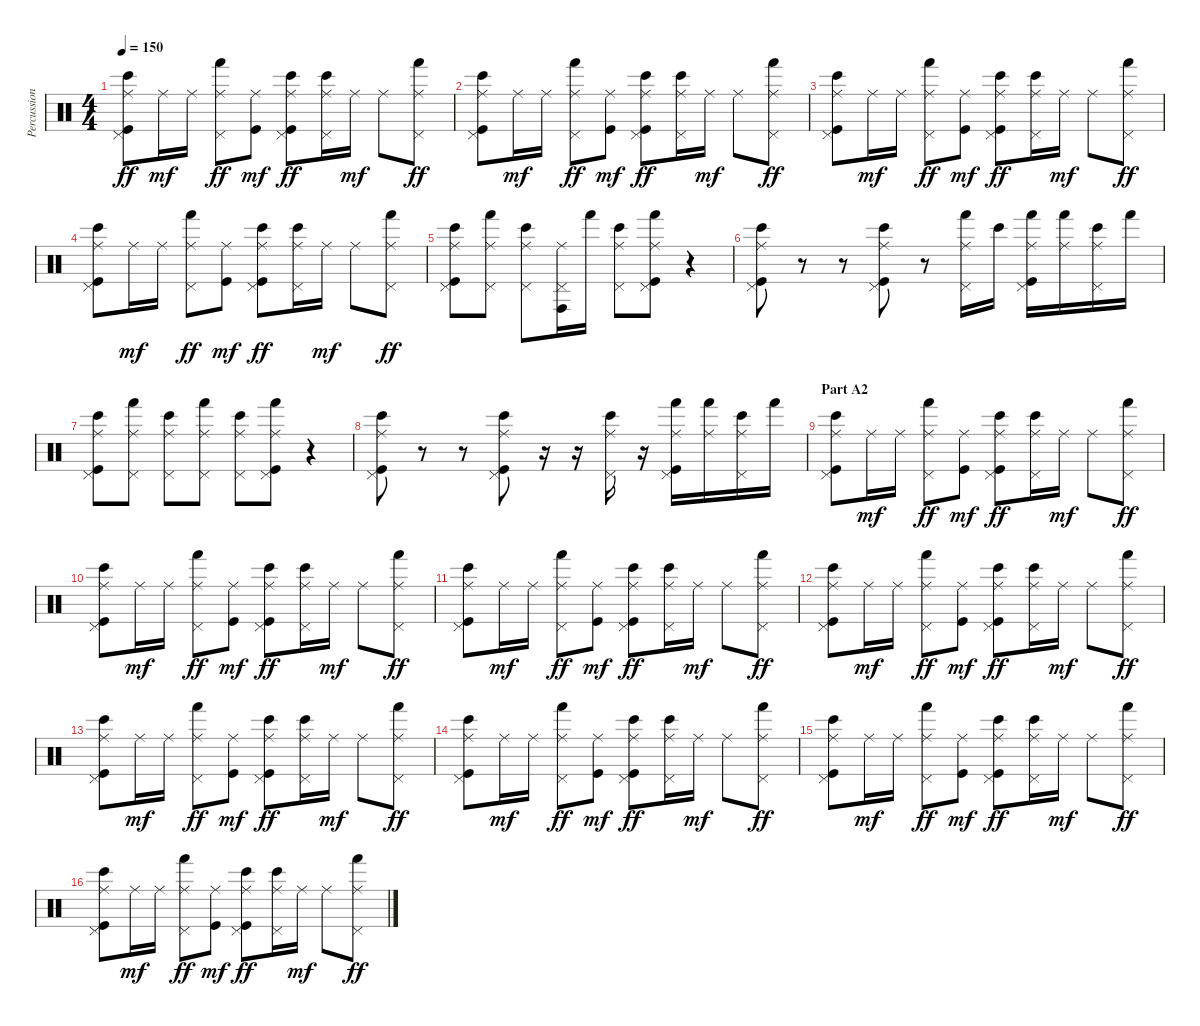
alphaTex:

\track ("Percussion" "Percussion") {instrument percussion}
\staff {score}
\articulation defaults
\ts (4 4)
\tempo 150
\clef neutral
\ks c
("Ride (middle)" "Pedal Hi-Hat (hit)" "Bongo High (hit)" "Kick (hit)").8{dy ff} "Ride (middle)".16{dy mf} "Ride (middle)".16 ("Ride (middle)" "Pedal Hi-Hat (hit)" "Hand (hit)").8{dy ff} ("Ride (middle)" "Kick (hit)").8{dy mf} ("Ride (middle)" "Pedal Hi-Hat (hit)" "Bongo High (hit)" "Kick (hit)").8{dy ff} ("Ride (middle)" "Pedal Hi-Hat (hit)" "Bongo High (hit)").16 "Ride (middle)".16{dy mf} "Ride (middle)".8 ("Ride (middle)" "Pedal Hi-Hat (hit)" "Hand (hit)").8{dy ff} |
("Ride (middle)" "Pedal Hi-Hat (hit)" "Bongo High (hit)" "Kick (hit)").8 "Ride (middle)".16{dy mf} "Ride (middle)".16 ("Ride (middle)" "Pedal Hi-Hat (hit)" "Hand (hit)").8{dy ff} ("Ride (middle)" "Kick (hit)").8{dy mf} ("Ride (middle)" "Pedal Hi-Hat (hit)" "Bongo High (hit)" "Kick (hit)").8{dy ff} ("Ride (middle)" "Pedal Hi-Hat (hit)" "Bongo High (hit)").16 "Ride (middle)".16{dy mf} "Ride (middle)".8 ("Ride (middle)" "Pedal Hi-Hat (hit)" "Hand (hit)").8{dy ff} |
("Ride (middle)" "Pedal Hi-Hat (hit)" "Bongo High (hit)" "Kick (hit)").8 "Ride (middle)".16{dy mf} "Ride (middle)".16 ("Ride (middle)" "Pedal Hi-Hat (hit)" "Hand (hit)").8{dy ff} ("Ride (middle)" "Kick (hit)").8{dy mf} ("Ride (middle)" "Pedal Hi-Hat (hit)" "Bongo High (hit)" "Kick (hit)").8{dy ff} ("Ride (middle)" "Pedal Hi-Hat (hit)" "Bongo High (hit)").16 "Ride (middle)".16{dy mf} "Ride (middle)".8 ("Ride (middle)" "Pedal Hi-Hat (hit)" "Hand (hit)").8{dy ff} |
("Ride (middle)" "Pedal Hi-Hat (hit)" "Bongo High (hit)" "Kick (hit)").8 "Ride (middle)".16{dy mf} "Ride (middle)".16 ("Ride (middle)" "Pedal Hi-Hat (hit)" "Hand (hit)").8{dy ff} ("Ride (middle)" "Kick (hit)").8{dy mf} ("Ride (middle)" "Pedal Hi-Hat (hit)" "Bongo High (hit)" "Kick (hit)").8{dy ff} ("Ride (middle)" "Pedal Hi-Hat (hit)" "Bongo High (hit)").16 "Ride (middle)".16{dy mf} "Ride (middle)".8 ("Ride (middle)" "Pedal Hi-Hat (hit)" "Hand (hit)").8{dy ff} |
("Ride (middle)" "Pedal Hi-Hat (hit)" "Bongo High (hit)" "Kick (hit)").8 ("Ride (middle)" "Pedal Hi-Hat (hit)" "Hand (hit)").8 ("Ride (middle)" "Pedal Hi-Hat (hit)" "Bongo High (hit)").8 ("Ride (middle)" "Pedal Hi-Hat (hit)" "Conga high (hit)").16 "Hand (hit)".16 ("Ride (middle)" "Pedal Hi-Hat (hit)" "Bongo High (hit)").8 ("Ride (middle)" "Pedal Hi-Hat (hit)" "Hand (hit)" "Kick (hit)").8 r.4 |
("Ride (middle)" "Pedal Hi-Hat (hit)" "Bongo High (hit)" "Kick (hit)").8 r.8 r.8 ("Ride (middle)" "Pedal Hi-Hat (hit)" "Bongo High (hit)" "Kick (hit)").8 r.8 ("Ride (middle)" "Pedal Hi-Hat (hit)" "Hand (hit)").16 "Bongo High (hit)".16 ("Ride (middle)" "Pedal Hi-Hat (hit)" "Hand (hit)" "Kick (hit)").16 ("Ride (middle)" "Hand (hit)").16 ("Ride (middle)" "Pedal Hi-Hat (hit)" "Bongo High (hit)").16 "Hand (hit)".16 |
("Ride (middle)" "Pedal Hi-Hat (hit)" "Bongo High (hit)" "Kick (hit)").8 ("Ride (middle)" "Pedal Hi-Hat (hit)" "Hand (hit)").8 ("Ride (middle)" "Pedal Hi-Hat (hit)" "Bongo High (hit)").8 ("Ride (middle)" "Pedal Hi-Hat (hit)" "Hand (hit)").8 ("Ride (middle)" "Pedal Hi-Hat (hit)" "Bongo High (hit)").8 ("Ride (middle)" "Pedal Hi-Hat (hit)" "Hand (hit)" "Kick (hit)").8 r.4 |
("Ride (middle)" "Pedal Hi-Hat (hit)" "Bongo High (hit)" "Kick (hit)").8 r.8 r.8 ("Ride (middle)" "Pedal Hi-Hat (hit)" "Bongo High (hit)" "Kick (hit)").8 r.16 r.16 ("Ride (middle)" "Pedal Hi-Hat (hit)" "Bongo High (hit)").16 r.16 ("Ride (middle)" "Pedal Hi-Hat (hit)" "Hand (hit)" "Kick (hit)").16 ("Ride (middle)" "Hand (hit)").16 ("Ride (middle)" "Pedal Hi-Hat (hit)" "Bongo High (hit)").16 "Hand (hit)".16 |
\section ("" "Part A2")
("Ride (middle)" "Pedal Hi-Hat (hit)" "Bongo High (hit)" "Kick (hit)").8 "Ride (middle)".16{dy mf} "Ride (middle)".16 ("Ride (middle)" "Pedal Hi-Hat (hit)" "Hand (hit)").8{dy ff} ("Ride (middle)" "Kick (hit)").8{dy mf} ("Ride (middle)" "Pedal Hi-Hat (hit)" "Bongo High (hit)" "Kick (hit)").8{dy ff} ("Ride (middle)" "Pedal Hi-Hat (hit)" "Bongo High (hit)").16 "Ride (middle)".16{dy mf} "Ride (middle)".8 ("Ride (middle)" "Pedal Hi-Hat (hit)" "Hand (hit)").8{dy ff} |
("Ride (middle)" "Pedal Hi-Hat (hit)" "Bongo High (hit)" "Kick (hit)").8 "Ride (middle)".16{dy mf} "Ride (middle)".16 ("Ride (middle)" "Pedal Hi-Hat (hit)" "Hand (hit)").8{dy ff} ("Ride (middle)" "Kick (hit)").8{dy mf} ("Ride (middle)" "Pedal Hi-Hat (hit)" "Bongo High (hit)" "Kick (hit)").8{dy ff} ("Ride (middle)" "Pedal Hi-Hat (hit)" "Bongo High (hit)").16 "Ride (middle)".16{dy mf} "Ride (middle)".8 ("Ride (middle)" "Pedal Hi-Hat (hit)" "Hand (hit)").8{dy ff} |
("Ride (middle)" "Pedal Hi-Hat (hit)" "Bongo High (hit)" "Kick (hit)").8 "Ride (middle)".16{dy mf} "Ride (middle)".16 ("Ride (middle)" "Pedal Hi-Hat (hit)" "Hand (hit)").8{dy ff} ("Ride (middle)" "Kick (hit)").8{dy mf} ("Ride (middle)" "Pedal Hi-Hat (hit)" "Bongo High (hit)" "Kick (hit)").8{dy ff} ("Ride (middle)" "Pedal Hi-Hat (hit)" "Bongo High (hit)").16 "Ride (middle)".16{dy mf} "Ride (middle)".8 ("Ride (middle)" "Pedal Hi-Hat (hit)" "Hand (hit)").8{dy ff} |
("Ride (middle)" "Pedal Hi-Hat (hit)" "Bongo High (hit)" "Kick (hit)").8 "Ride (middle)".16{dy mf} "Ride (middle)".16 ("Ride (middle)" "Pedal Hi-Hat (hit)" "Hand (hit)").8{dy ff} ("Ride (middle)" "Kick (hit)").8{dy mf} ("Ride (middle)" "Pedal Hi-Hat (hit)" "Bongo High (hit)" "Kick (hit)").8{dy ff} ("Ride (middle)" "Pedal Hi-Hat (hit)" "Bongo High (hit)").16 "Ride (middle)".16{dy mf} "Ride (middle)".8 ("Ride (middle)" "Pedal Hi-Hat (hit)" "Hand (hit)").8{dy ff} |
("Ride (middle)" "Pedal Hi-Hat (hit)" "Bongo High (hit)" "Kick (hit)").8 "Ride (middle)".16{dy mf} "Ride (middle)".16 ("Ride (middle)" "Pedal Hi-Hat (hit)" "Hand (hit)").8{dy ff} ("Ride (middle)" "Kick (hit)").8{dy mf} ("Ride (middle)" "Pedal Hi-Hat (hit)" "Bongo High (hit)" "Kick (hit)").8{dy ff} ("Ride (middle)" "Pedal Hi-Hat (hit)" "Bongo High (hit)").16 "Ride (middle)".16{dy mf} "Ride (middle)".8 ("Ride (middle)" "Pedal Hi-Hat (hit)" "Hand (hit)").8{dy ff} |
("Ride (middle)" "Pedal Hi-Hat (hit)" "Bongo High (hit)" "Kick (hit)").8 "Ride (middle)".16{dy mf} "Ride (middle)".16 ("Ride (middle)" "Pedal Hi-Hat (hit)" "Hand (hit)").8{dy ff} ("Ride (middle)" "Kick (hit)").8{dy mf} ("Ride (middle)" "Pedal Hi-Hat (hit)" "Bongo High (hit)" "Kick (hit)").8{dy ff} ("Ride (middle)" "Pedal Hi-Hat (hit)" "Bongo High (hit)").16 "Ride (middle)".16{dy mf} "Ride (middle)".8 ("Ride (middle)" "Pedal Hi-Hat (hit)" "Hand (hit)").8{dy ff} |
("Ride (middle)" "Pedal Hi-Hat (hit)" "Bongo High (hit)" "Kick (hit)").8 "Ride (middle)".16{dy mf} "Ride (middle)".16 ("Ride (middle)" "Pedal Hi-Hat (hit)" "Hand (hit)").8{dy ff} ("Ride (middle)" "Kick (hit)").8{dy mf} ("Ride (middle)" "Pedal Hi-Hat (hit)" "Bongo High (hit)" "Kick (hit)").8{dy ff} ("Ride (middle)" "Pedal Hi-Hat (hit)" "Bongo High (hit)").16 "Ride (middle)".16{dy mf} "Ride (middle)".8 ("Ride (middle)" "Pedal Hi-Hat (hit)" "Hand (hit)").8{dy ff} |
("Ride (middle)" "Pedal Hi-Hat (hit)" "Bongo High (hit)" "Kick (hit)").8 "Ride (middle)".16{dy mf} "Ride (middle)".16 ("Ride (middle)" "Pedal Hi-Hat (hit)" "Hand (hit)").8{dy ff} ("Ride (middle)" "Kick (hit)").8{dy mf} ("Ride (middle)" "Pedal Hi-Hat (hit)" "Bongo High (hit)" "Kick (hit)").8{dy ff} ("Ride (middle)" "Pedal Hi-Hat (hit)" "Bongo High (hit)").16 "Ride (middle)".16{dy mf} "Ride (middle)".8 ("Ride (middle)" "Pedal Hi-Hat (hit)" "Hand (hit)").8{dy ff}
